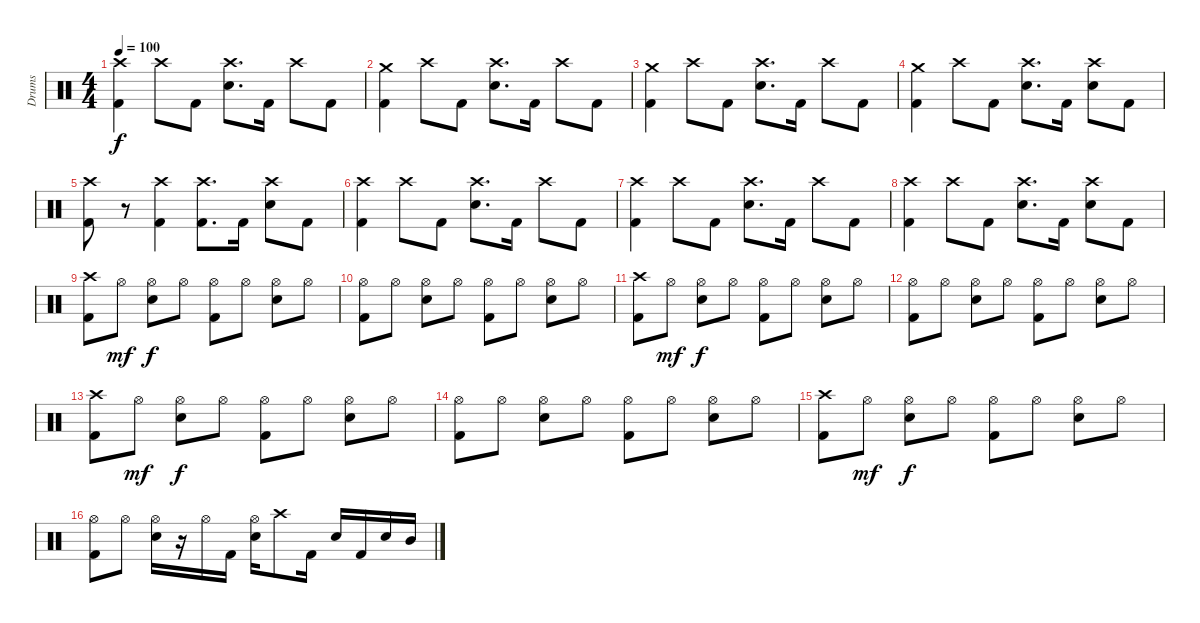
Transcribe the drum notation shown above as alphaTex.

\track ("Drums" "Drums") {instrument percussion}
\staff {score}
\articulation defaults
\ts (4 4)
\tempo 100
\clef neutral
\ks c
("Crash high (hit)" "Kick (hit) 2").4{dy f} "Crash high (hit)".8 "Kick (hit) 2".8 ("Crash high (hit)" "Snare (hit) 2").8{d} "Kick (hit) 2".16 "Crash high (hit)".8 "Kick (hit) 2".8 |
("Crash medium (hit)" "Kick (hit) 2").4 "Crash high (hit)".8 "Kick (hit) 2".8 ("Crash high (hit)" "Snare (hit) 2").8{d} "Kick (hit) 2".16 "Crash high (hit)".8 "Kick (hit) 2".8 |
("Crash medium (hit)" "Kick (hit) 2").4 "Crash high (hit)".8 "Kick (hit) 2".8 ("Crash high (hit)" "Snare (hit) 2").8{d} "Kick (hit) 2".16 "Crash high (hit)".8 "Kick (hit) 2".8 |
("Crash medium (hit)" "Kick (hit) 2").4 "Crash high (hit)".8 "Kick (hit) 2".8 ("Crash high (hit)" "Snare (hit) 2").8{d} "Kick (hit) 2".16 ("Crash high (hit)" "Snare (hit) 2").8 "Kick (hit) 2".8 |
("Crash high (hit)" "Kick (hit) 2").8 r.8 ("Crash high (hit)" "Kick (hit) 2").4 ("Crash high (hit)" "Kick (hit) 2").8{d} "Kick (hit) 2".16 ("Crash high (hit)" "Snare (hit) 2").8 "Kick (hit) 2".8 |
("Crash high (hit)" "Kick (hit) 2").4 "Crash high (hit)".8 "Kick (hit) 2".8 ("Crash high (hit)" "Snare (hit) 2").8{d} "Kick (hit) 2".16 "Crash high (hit)".8 "Kick (hit) 2".8 |
("Crash high (hit)" "Kick (hit) 2").4 "Crash high (hit)".8 "Kick (hit) 2".8 ("Crash high (hit)" "Snare (hit) 2").8{d} "Kick (hit) 2".16 "Crash high (hit)".8 "Kick (hit) 2".8 |
("Crash high (hit)" "Kick (hit) 2").4 "Crash high (hit)".8 "Kick (hit) 2".8 ("Crash high (hit)" "Snare (hit) 2").8{d} "Kick (hit) 2".16 ("Crash high (hit)" "Snare (hit) 2").8 "Kick (hit) 2".8 |
("Crash high (hit)" "Kick (hit) 2").8 "Hi-Hat (open)".8{dy mf} ("Hi-Hat (open)" "Snare (hit) 2").8{dy f} "Hi-Hat (open)".8 ("Hi-Hat (open)" "Kick (hit) 2").8 "Hi-Hat (open)".8 ("Hi-Hat (open)" "Snare (hit) 2").8 "Hi-Hat (open)".8 |
("Hi-Hat (open)" "Kick (hit) 2").8 "Hi-Hat (open)".8 ("Hi-Hat (open)" "Snare (hit) 2").8 "Hi-Hat (open)".8 ("Hi-Hat (open)" "Kick (hit) 2").8 "Hi-Hat (open)".8 ("Hi-Hat (open)" "Snare (hit) 2").8 "Hi-Hat (open)".8 |
("Crash high (hit)" "Kick (hit) 2").8 "Hi-Hat (open)".8{dy mf} ("Hi-Hat (open)" "Snare (hit) 2").8{dy f} "Hi-Hat (open)".8 ("Hi-Hat (open)" "Kick (hit) 2").8 "Hi-Hat (open)".8 ("Hi-Hat (open)" "Snare (hit) 2").8 "Hi-Hat (open)".8 |
("Hi-Hat (open)" "Kick (hit) 2").8 "Hi-Hat (open)".8 ("Hi-Hat (open)" "Snare (hit) 2").8 "Hi-Hat (open)".8 ("Hi-Hat (open)" "Kick (hit) 2").8 "Hi-Hat (open)".8 ("Hi-Hat (open)" "Snare (hit) 2").8 "Hi-Hat (open)".8 |
("Crash high (hit)" "Kick (hit) 2").8 "Hi-Hat (open)".8{dy mf} ("Hi-Hat (open)" "Snare (hit) 2").8{dy f} "Hi-Hat (open)".8 ("Hi-Hat (open)" "Kick (hit) 2").8 "Hi-Hat (open)".8 ("Hi-Hat (open)" "Snare (hit) 2").8 "Hi-Hat (open)".8 |
("Hi-Hat (open)" "Kick (hit) 2").8 "Hi-Hat (open)".8 ("Hi-Hat (open)" "Snare (hit) 2").8 "Hi-Hat (open)".8 ("Hi-Hat (open)" "Kick (hit) 2").8 "Hi-Hat (open)".8 ("Hi-Hat (open)" "Snare (hit) 2").8 "Hi-Hat (open)".8 |
("Crash high (hit)" "Kick (hit) 2").8 "Hi-Hat (open)".8{dy mf} ("Hi-Hat (open)" "Snare (hit) 2").8{dy f} "Hi-Hat (open)".8 ("Hi-Hat (open)" "Kick (hit) 2").8 "Hi-Hat (open)".8 ("Hi-Hat (open)" "Snare (hit) 2").8 "Hi-Hat (open)".8 |
("Hi-Hat (open)" "Kick (hit) 2").8 "Hi-Hat (open)".8 ("Hi-Hat (open)" "Snare (hit) 2").16 r.16 "Hi-Hat (open)".16 "Kick (hit) 2".16 ("Hi-Hat (open)" "Snare (hit) 2").16 "Crash high (hit)".8 "Kick (hit) 2".16 "Snare (hit) 2".16 "Kick (hit) 2".16 "Snare (hit) 2".16 "Mid Tom (hit)".16
